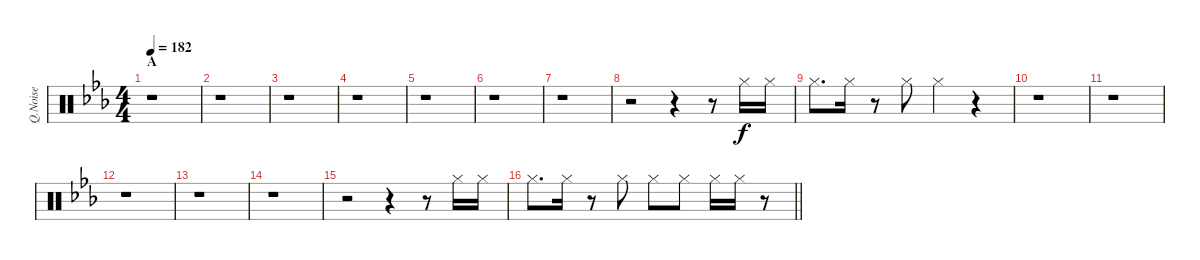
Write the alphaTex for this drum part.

\track ("Q.Noise" "Q.Noise") {instrument percussion}
\staff {score}
\articulation defaults
\ts (4 4)
\section ("" "A")
\tempo 182
\clef neutral
\ks eb
r.1{dy f} |
r.1 |
r.1 |
r.1 |
r.1 |
r.1 |
r.1 |
r.2 r.4 r.8 "Hi-Hat (closed)".16 "Hi-Hat (closed)".16 |
"Hi-Hat (closed)".8{d} "Hi-Hat (closed)".16 r.8 "Hi-Hat (closed)".8 "Hi-Hat (closed)".4 r.4 |
r.1 |
r.1 |
r.1 |
r.1 |
r.1 |
r.2 r.4 r.8 "Hi-Hat (closed)".16 "Hi-Hat (closed)".16 |
\barLineRight lightlight "Hi-Hat (closed)".8{d} "Hi-Hat (closed)".16
r.8 "Hi-Hat (closed)".8 "Hi-Hat (closed)".8 "Hi-Hat (closed)".8 "Hi-Hat (closed)".16 "Hi-Hat (closed)".16 r.8
